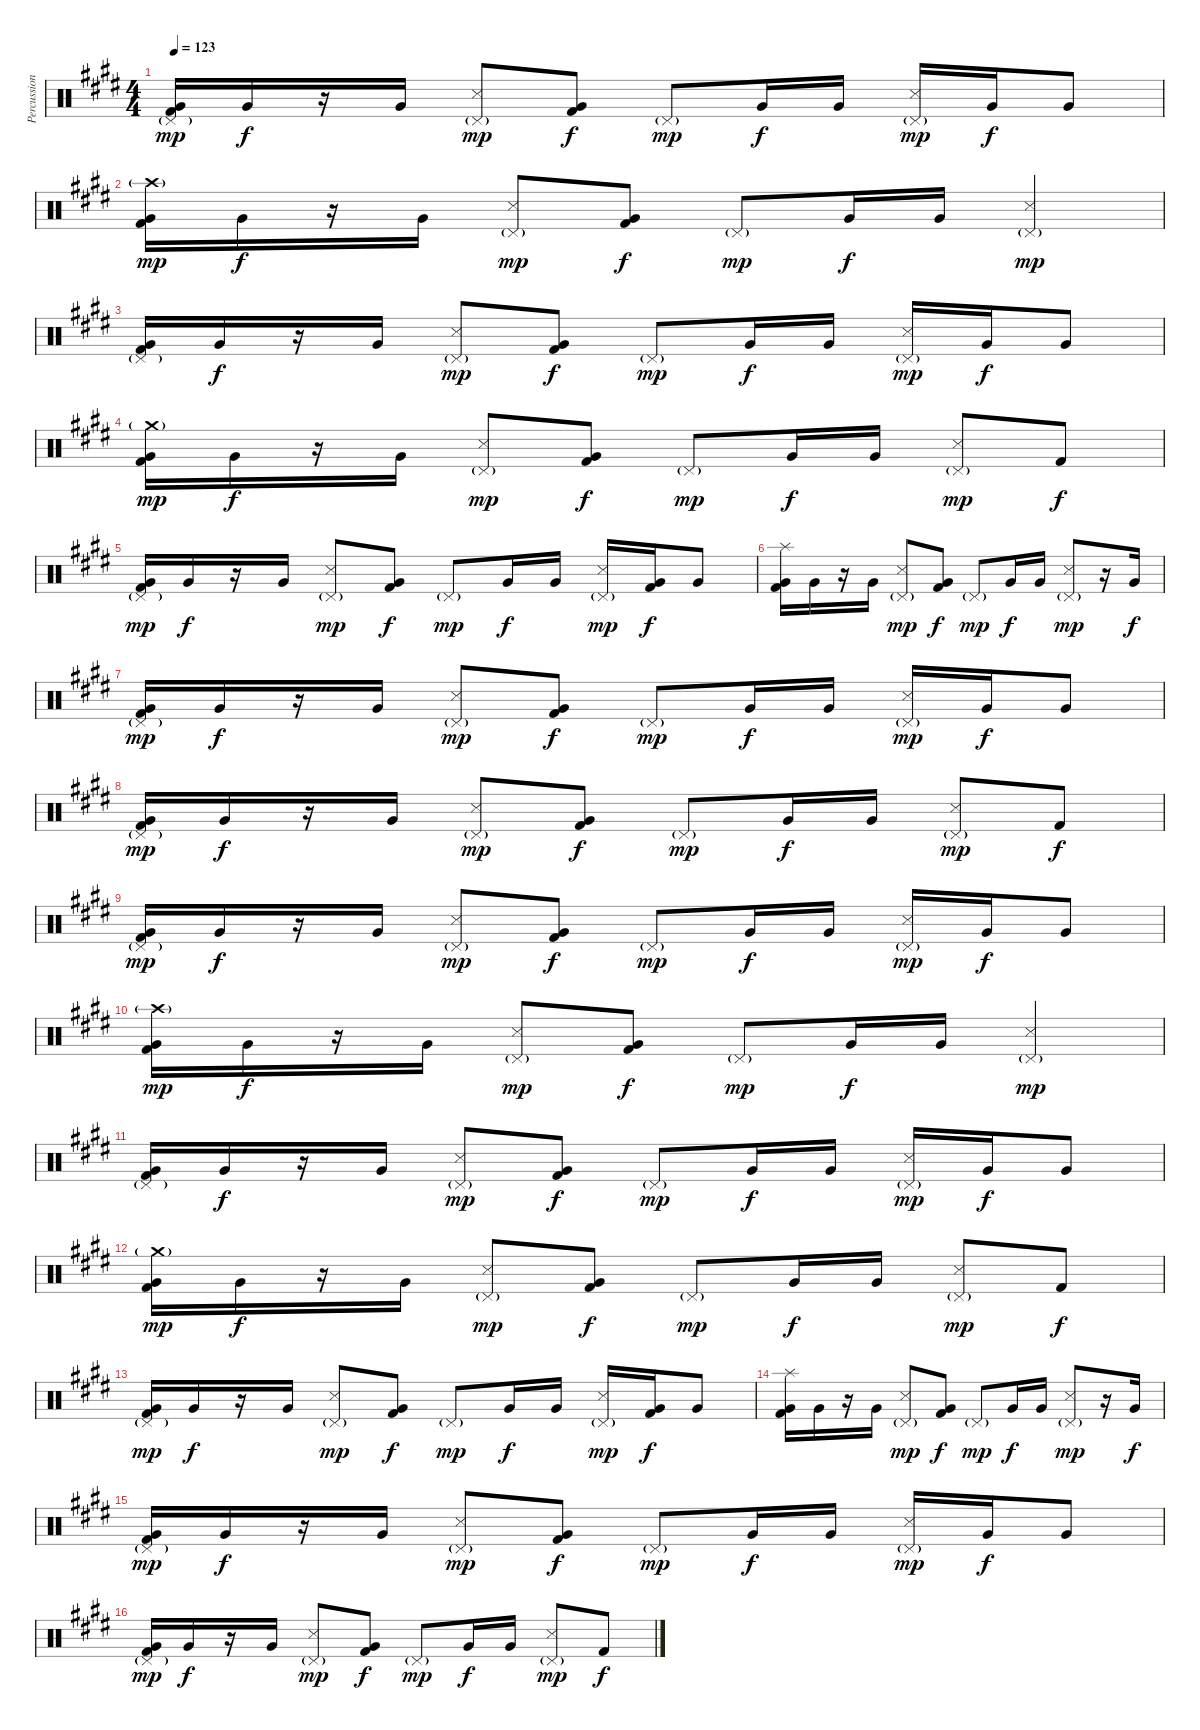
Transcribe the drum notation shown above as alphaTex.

\track ("Percussioni" "Percussion") {instrument percussion}
\staff {score}
\articulation defaults
\ts (4 4)
\tempo 123
\clef neutral
\ks e
("Pedal Hi-Hat (hit)"{g} "Very Low Tom (hit)" "Kick (hit) 2").16{dy mp} "Very Low Tom (hit)".16{dy f} r.16 "Very Low Tom (hit)".16 ("Pedal Hi-Hat (hit)"{g} "Metronome (hit)").8{dy mp} ("Very Low Tom (hit)" "Kick (hit) 2").8{dy f} "Pedal Hi-Hat (hit)"{g}.8{dy mp} "Very Low Tom (hit)".16{dy f} "Very Low Tom (hit)".16 ("Pedal Hi-Hat (hit)"{g} "Metronome (hit)").16{dy mp} "Very Low Tom (hit)".16{dy f} "Very Low Tom (hit)".8 |
("Crash high (hit)"{g} "Very Low Tom (hit)" "Kick (hit) 2").16{dy mp} "Very Low Tom (hit)".16{dy f} r.16 "Very Low Tom (hit)".16 ("Pedal Hi-Hat (hit)"{g} "Metronome (hit)").8{dy mp} ("Very Low Tom (hit)" "Kick (hit) 2").8{dy f} "Pedal Hi-Hat (hit)"{g}.8{dy mp} "Very Low Tom (hit)".16{dy f} "Very Low Tom (hit)".16 ("Pedal Hi-Hat (hit)"{g} "Metronome (hit)").4{dy mp} |
("Pedal Hi-Hat (hit)"{g} "Very Low Tom (hit)" "Kick (hit) 2").16 "Very Low Tom (hit)".16{dy f} r.16 "Very Low Tom (hit)".16 ("Pedal Hi-Hat (hit)"{g} "Metronome (hit)").8{dy mp} ("Very Low Tom (hit)" "Kick (hit) 2").8{dy f} "Pedal Hi-Hat (hit)"{g}.8{dy mp} "Very Low Tom (hit)".16{dy f} "Very Low Tom (hit)".16 ("Pedal Hi-Hat (hit)"{g} "Metronome (hit)").16{dy mp} "Very Low Tom (hit)".16{dy f} "Very Low Tom (hit)".8 |
("Crash medium (hit)"{g} "Very Low Tom (hit)" "Kick (hit) 2").16{dy mp} "Very Low Tom (hit)".16{dy f} r.16 "Very Low Tom (hit)".16 ("Pedal Hi-Hat (hit)"{g} "Metronome (hit)").8{dy mp} ("Very Low Tom (hit)" "Kick (hit) 2").8{dy f} "Pedal Hi-Hat (hit)"{g}.8{dy mp} "Very Low Tom (hit)".16{dy f} "Very Low Tom (hit)".16 ("Pedal Hi-Hat (hit)"{g} "Metronome (hit)").8{dy mp} "Kick (hit) 2".8{dy f} |
("Pedal Hi-Hat (hit)"{g} "Very Low Tom (hit)" "Kick (hit) 2").16{dy mp} "Very Low Tom (hit)".16{dy f} r.16 "Very Low Tom (hit)".16 ("Pedal Hi-Hat (hit)"{g} "Metronome (hit)").8{dy mp} ("Very Low Tom (hit)" "Kick (hit) 2").8{dy f} "Pedal Hi-Hat (hit)"{g}.8{dy mp} "Very Low Tom (hit)".16{dy f} "Very Low Tom (hit)".16 ("Pedal Hi-Hat (hit)"{g} "Metronome (hit)").16{dy mp} ("Very Low Tom (hit)" "Kick (hit) 2").16{dy f} "Very Low Tom (hit)".8 |
("Splash (hit)" "Very Low Tom (hit)" "Kick (hit) 2").16 "Very Low Tom (hit)".16 r.16 "Very Low Tom (hit)".16 ("Pedal Hi-Hat (hit)"{g} "Metronome (hit)").8{dy mp} ("Very Low Tom (hit)" "Kick (hit) 2").8{dy f} "Pedal Hi-Hat (hit)"{g}.8{dy mp} "Very Low Tom (hit)".16{dy f} "Very Low Tom (hit)".16 ("Pedal Hi-Hat (hit)"{g} "Metronome (hit)").8{dy mp} r.16 "Very Low Tom (hit)".16{dy f} |
("Pedal Hi-Hat (hit)"{g} "Very Low Tom (hit)" "Kick (hit) 2").16{dy mp} "Very Low Tom (hit)".16{dy f} r.16 "Very Low Tom (hit)".16 ("Pedal Hi-Hat (hit)"{g} "Metronome (hit)").8{dy mp} ("Very Low Tom (hit)" "Kick (hit) 2").8{dy f} "Pedal Hi-Hat (hit)"{g}.8{dy mp} "Very Low Tom (hit)".16{dy f} "Very Low Tom (hit)".16 ("Pedal Hi-Hat (hit)"{g} "Metronome (hit)").16{dy mp} "Very Low Tom (hit)".16{dy f} "Very Low Tom (hit)".8 |
("Pedal Hi-Hat (hit)"{g} "Very Low Tom (hit)" "Kick (hit) 2").16{dy mp} "Very Low Tom (hit)".16{dy f} r.16 "Very Low Tom (hit)".16 ("Pedal Hi-Hat (hit)"{g} "Metronome (hit)").8{dy mp} ("Very Low Tom (hit)" "Kick (hit) 2").8{dy f} "Pedal Hi-Hat (hit)"{g}.8{dy mp} "Very Low Tom (hit)".16{dy f} "Very Low Tom (hit)".16 ("Pedal Hi-Hat (hit)"{g} "Metronome (hit)").8{dy mp} "Kick (hit) 2".8{dy f} |
("Pedal Hi-Hat (hit)"{g} "Very Low Tom (hit)" "Kick (hit) 2").16{dy mp} "Very Low Tom (hit)".16{dy f} r.16 "Very Low Tom (hit)".16 ("Pedal Hi-Hat (hit)"{g} "Metronome (hit)").8{dy mp} ("Very Low Tom (hit)" "Kick (hit) 2").8{dy f} "Pedal Hi-Hat (hit)"{g}.8{dy mp} "Very Low Tom (hit)".16{dy f} "Very Low Tom (hit)".16 ("Pedal Hi-Hat (hit)"{g} "Metronome (hit)").16{dy mp} "Very Low Tom (hit)".16{dy f} "Very Low Tom (hit)".8 |
("Crash high (hit)"{g} "Very Low Tom (hit)" "Kick (hit) 2").16{dy mp} "Very Low Tom (hit)".16{dy f} r.16 "Very Low Tom (hit)".16 ("Pedal Hi-Hat (hit)"{g} "Metronome (hit)").8{dy mp} ("Very Low Tom (hit)" "Kick (hit) 2").8{dy f} "Pedal Hi-Hat (hit)"{g}.8{dy mp} "Very Low Tom (hit)".16{dy f} "Very Low Tom (hit)".16 ("Pedal Hi-Hat (hit)"{g} "Metronome (hit)").4{dy mp} |
("Pedal Hi-Hat (hit)"{g} "Very Low Tom (hit)" "Kick (hit) 2").16 "Very Low Tom (hit)".16{dy f} r.16 "Very Low Tom (hit)".16 ("Pedal Hi-Hat (hit)"{g} "Metronome (hit)").8{dy mp} ("Very Low Tom (hit)" "Kick (hit) 2").8{dy f} "Pedal Hi-Hat (hit)"{g}.8{dy mp} "Very Low Tom (hit)".16{dy f} "Very Low Tom (hit)".16 ("Pedal Hi-Hat (hit)"{g} "Metronome (hit)").16{dy mp} "Very Low Tom (hit)".16{dy f} "Very Low Tom (hit)".8 |
("Crash medium (hit)"{g} "Very Low Tom (hit)" "Kick (hit) 2").16{dy mp} "Very Low Tom (hit)".16{dy f} r.16 "Very Low Tom (hit)".16 ("Pedal Hi-Hat (hit)"{g} "Metronome (hit)").8{dy mp} ("Very Low Tom (hit)" "Kick (hit) 2").8{dy f} "Pedal Hi-Hat (hit)"{g}.8{dy mp} "Very Low Tom (hit)".16{dy f} "Very Low Tom (hit)".16 ("Pedal Hi-Hat (hit)"{g} "Metronome (hit)").8{dy mp} "Kick (hit) 2".8{dy f} |
("Pedal Hi-Hat (hit)"{g} "Very Low Tom (hit)" "Kick (hit) 2").16{dy mp} "Very Low Tom (hit)".16{dy f} r.16 "Very Low Tom (hit)".16 ("Pedal Hi-Hat (hit)"{g} "Metronome (hit)").8{dy mp} ("Very Low Tom (hit)" "Kick (hit) 2").8{dy f} "Pedal Hi-Hat (hit)"{g}.8{dy mp} "Very Low Tom (hit)".16{dy f} "Very Low Tom (hit)".16 ("Pedal Hi-Hat (hit)"{g} "Metronome (hit)").16{dy mp} ("Very Low Tom (hit)" "Kick (hit) 2").16{dy f} "Very Low Tom (hit)".8 |
("Splash (hit)" "Very Low Tom (hit)" "Kick (hit) 2").16 "Very Low Tom (hit)".16 r.16 "Very Low Tom (hit)".16 ("Pedal Hi-Hat (hit)"{g} "Metronome (hit)").8{dy mp} ("Very Low Tom (hit)" "Kick (hit) 2").8{dy f} "Pedal Hi-Hat (hit)"{g}.8{dy mp} "Very Low Tom (hit)".16{dy f} "Very Low Tom (hit)".16 ("Pedal Hi-Hat (hit)"{g} "Metronome (hit)").8{dy mp} r.16 "Very Low Tom (hit)".16{dy f} |
("Pedal Hi-Hat (hit)"{g} "Very Low Tom (hit)" "Kick (hit) 2").16{dy mp} "Very Low Tom (hit)".16{dy f} r.16 "Very Low Tom (hit)".16 ("Pedal Hi-Hat (hit)"{g} "Metronome (hit)").8{dy mp} ("Very Low Tom (hit)" "Kick (hit) 2").8{dy f} "Pedal Hi-Hat (hit)"{g}.8{dy mp} "Very Low Tom (hit)".16{dy f} "Very Low Tom (hit)".16 ("Pedal Hi-Hat (hit)"{g} "Metronome (hit)").16{dy mp} "Very Low Tom (hit)".16{dy f} "Very Low Tom (hit)".8 |
("Pedal Hi-Hat (hit)"{g} "Very Low Tom (hit)" "Kick (hit) 2").16{dy mp} "Very Low Tom (hit)".16{dy f} r.16 "Very Low Tom (hit)".16 ("Pedal Hi-Hat (hit)"{g} "Metronome (hit)").8{dy mp} ("Very Low Tom (hit)" "Kick (hit) 2").8{dy f} "Pedal Hi-Hat (hit)"{g}.8{dy mp} "Very Low Tom (hit)".16{dy f} "Very Low Tom (hit)".16 ("Pedal Hi-Hat (hit)"{g} "Metronome (hit)").8{dy mp} "Kick (hit) 2".8{dy f}
